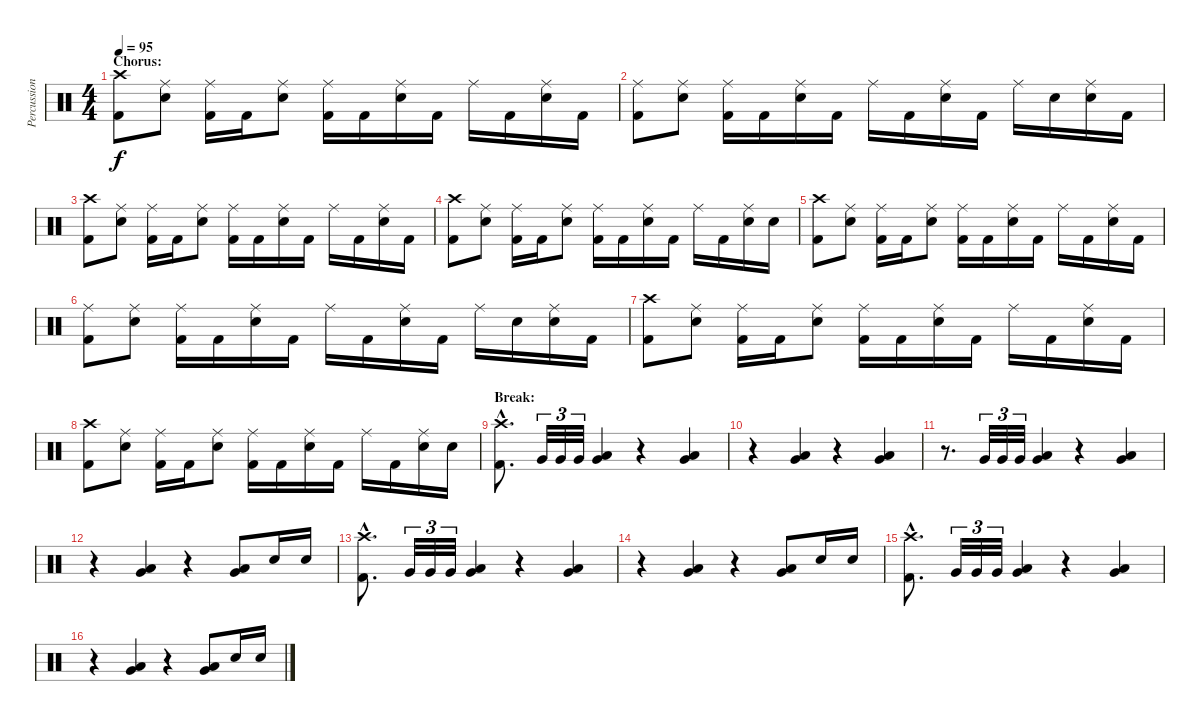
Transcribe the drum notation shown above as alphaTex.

\track ("Percussion" "Percussion") {instrument percussion}
\staff {score}
\articulation defaults
\ts (4 4)
\section ("" "Chorus:")
\tempo 95
\clef neutral
\ks c
("Crash high (hit)" "Kick (hit) 2").8{dy f} ("Ride (middle)" "Electric Snare (hit)").8 ("Ride (middle)" "Kick (hit) 2").16 "Kick (hit) 2".16 ("Ride (middle)" "Electric Snare (hit)").8 ("Ride (middle)" "Kick (hit) 2").16 "Kick (hit) 2".16 ("Ride (middle)" "Electric Snare (hit)").16 "Kick (hit) 2".16 "Ride (middle)".16 "Kick (hit) 2".16 ("Ride (middle)" "Electric Snare (hit)").16 "Kick (hit) 2".16 |
("Ride (middle)" "Kick (hit) 2").8 ("Ride (middle)" "Electric Snare (hit)").8 ("Ride (middle)" "Kick (hit) 2").16 "Kick (hit) 2".16 ("Ride (middle)" "Electric Snare (hit)").16 "Kick (hit) 2".16 "Ride (middle)".16 "Kick (hit) 2".16 ("Ride (middle)" "Electric Snare (hit)").16 "Kick (hit) 2".16 "Ride (middle)".16 "Electric Snare (hit)".16 ("Ride (middle)" "Electric Snare (hit)").16 "Kick (hit) 2".16 |
("Crash high (hit)" "Kick (hit) 2").8 ("Ride (middle)" "Electric Snare (hit)").8 ("Ride (middle)" "Kick (hit) 2").16 "Kick (hit) 2".16 ("Ride (middle)" "Electric Snare (hit)").8 ("Ride (middle)" "Kick (hit) 2").16 "Kick (hit) 2".16 ("Ride (middle)" "Electric Snare (hit)").16 "Kick (hit) 2".16 "Ride (middle)".16 "Kick (hit) 2".16 ("Ride (middle)" "Electric Snare (hit)").16 "Kick (hit) 2".16 |
("Crash high (hit)" "Kick (hit) 2").8 ("Ride (middle)" "Electric Snare (hit)").8 ("Ride (middle)" "Kick (hit) 2").16 "Kick (hit) 2".16 ("Ride (middle)" "Electric Snare (hit)").8 ("Ride (middle)" "Kick (hit) 2").16 "Kick (hit) 2".16 ("Ride (middle)" "Electric Snare (hit)").16 "Kick (hit) 2".16 "Ride (middle)".16 "Kick (hit) 2".16 ("Ride (middle)" "Electric Snare (hit)").16 "Electric Snare (hit)".16 |
("Crash high (hit)" "Kick (hit) 2").8 ("Ride (middle)" "Electric Snare (hit)").8 ("Ride (middle)" "Kick (hit) 2").16 "Kick (hit) 2".16 ("Ride (middle)" "Electric Snare (hit)").8 ("Ride (middle)" "Kick (hit) 2").16 "Kick (hit) 2".16 ("Ride (middle)" "Electric Snare (hit)").16 "Kick (hit) 2".16 "Ride (middle)".16 "Kick (hit) 2".16 ("Ride (middle)" "Electric Snare (hit)").16 "Kick (hit) 2".16 |
("Ride (middle)" "Kick (hit) 2").8 ("Ride (middle)" "Electric Snare (hit)").8 ("Ride (middle)" "Kick (hit) 2").16 "Kick (hit) 2".16 ("Ride (middle)" "Electric Snare (hit)").16 "Kick (hit) 2".16 "Ride (middle)".16 "Kick (hit) 2".16 ("Ride (middle)" "Electric Snare (hit)").16 "Kick (hit) 2".16 "Ride (middle)".16 "Electric Snare (hit)".16 ("Ride (middle)" "Electric Snare (hit)").16 "Kick (hit) 2".16 |
("Crash high (hit)" "Kick (hit) 2").8 ("Ride (middle)" "Electric Snare (hit)").8 ("Ride (middle)" "Kick (hit) 2").16 "Kick (hit) 2".16 ("Ride (middle)" "Electric Snare (hit)").8 ("Ride (middle)" "Kick (hit) 2").16 "Kick (hit) 2".16 ("Ride (middle)" "Electric Snare (hit)").16 "Kick (hit) 2".16 "Ride (middle)".16 "Kick (hit) 2".16 ("Ride (middle)" "Electric Snare (hit)").16 "Kick (hit) 2".16 |
("Crash high (hit)" "Kick (hit) 2").8 ("Ride (middle)" "Electric Snare (hit)").8 ("Ride (middle)" "Kick (hit) 2").16 "Kick (hit) 2".16 ("Ride (middle)" "Electric Snare (hit)").8 ("Ride (middle)" "Kick (hit) 2").16 "Kick (hit) 2".16 ("Ride (middle)" "Electric Snare (hit)").16 "Kick (hit) 2".16 "Ride (middle)".16 "Kick (hit) 2".16 ("Ride (middle)" "Electric Snare (hit)").16 "Electric Snare (hit)".16 |
\section ("" "Break:")
("Crash high (hit)"{hac} "Kick (hit) 2"{hac}).8{d} "Very Low Tom (hit)".32{tu (3 2)} "Very Low Tom (hit)".32{tu (3 2)} "Very Low Tom (hit)".32{tu (3 2)} ("Low Tom (hit)" "Very Low Tom (hit)").4 r.4 ("Low Tom (hit)" "Very Low Tom (hit)").4 |
r.4 ("Low Tom (hit)" "Very Low Tom (hit)").4 r.4 ("Low Tom (hit)" "Very Low Tom (hit)").4 |
r.8{d} "Very Low Tom (hit)".32{tu (3 2)} "Very Low Tom (hit)".32{tu (3 2)} "Very Low Tom (hit)".32{tu (3 2)} ("Low Tom (hit)" "Very Low Tom (hit)").4 r.4 ("Low Tom (hit)" "Very Low Tom (hit)").4 |
r.4 ("Low Tom (hit)" "Very Low Tom (hit)").4 r.4 ("Low Tom (hit)" "Very Low Tom (hit)").8 "Electric Snare (hit)".16 "Electric Snare (hit)".16 |
("Crash high (hit)"{hac} "Kick (hit) 2"{hac}).8{d} "Very Low Tom (hit)".32{tu (3 2)} "Very Low Tom (hit)".32{tu (3 2)} "Very Low Tom (hit)".32{tu (3 2)} ("Low Tom (hit)" "Very Low Tom (hit)").4 r.4 ("Low Tom (hit)" "Very Low Tom (hit)").4 |
r.4 ("Low Tom (hit)" "Very Low Tom (hit)").4 r.4 ("Low Tom (hit)" "Very Low Tom (hit)").8 "Electric Snare (hit)".16 "Electric Snare (hit)".16 |
("Crash high (hit)"{hac} "Kick (hit) 2"{hac}).8{d} "Very Low Tom (hit)".32{tu (3 2)} "Very Low Tom (hit)".32{tu (3 2)} "Very Low Tom (hit)".32{tu (3 2)} ("Low Tom (hit)" "Very Low Tom (hit)").4 r.4 ("Low Tom (hit)" "Very Low Tom (hit)").4 |
r.4 ("Low Tom (hit)" "Very Low Tom (hit)").4 r.4 ("Low Tom (hit)" "Very Low Tom (hit)").8 "Electric Snare (hit)".16 "Electric Snare (hit)".16
